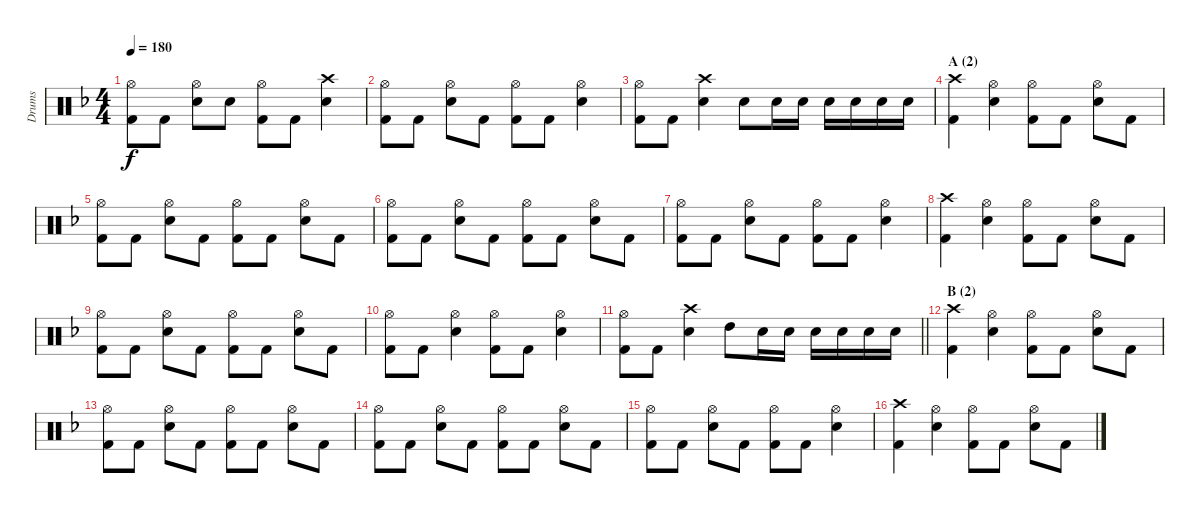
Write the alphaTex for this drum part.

\track ("Drums" "Drums") {instrument percussion}
\staff {score}
\articulation defaults
\ts (4 4)
\tempo 180
\clef neutral
\ks dminor
("Hi-Hat (open)" "Kick (hit) 2").8{dy f} "Kick (hit) 2".8 ("Hi-Hat (open)" "Snare (hit) 2").8 "Snare (hit) 2".8 ("Hi-Hat (open)" "Kick (hit) 2").8 "Kick (hit) 2".8 ("Crash high (hit)" "Snare (hit) 2").4 |
("Hi-Hat (open)" "Kick (hit) 2").8 "Kick (hit) 2".8 ("Hi-Hat (open)" "Snare (hit) 2").8 "Kick (hit) 2".8 ("Hi-Hat (open)" "Kick (hit) 2").8 "Kick (hit) 2".8 ("Hi-Hat (open)" "Snare (hit) 2").4 |
("Hi-Hat (open)" "Kick (hit) 2").8 "Kick (hit) 2".8 ("Crash high (hit)" "Snare (hit) 2").4 "Snare (hit) 2".8 "Snare (hit) 2".16 "Snare (hit) 2".16 "Snare (hit) 2".16 "Snare (hit) 2".16 "Snare (hit) 2".16 "Snare (hit) 2".16 |
\section ("" "A (2)")
("Crash high (hit)" "Kick (hit) 2").4 ("Hi-Hat (open)" "Snare (hit) 2").4 ("Hi-Hat (open)" "Kick (hit) 2").8 "Kick (hit) 2".8 ("Hi-Hat (open)" "Snare (hit) 2").8 "Kick (hit) 2".8 |
("Hi-Hat (open)" "Kick (hit) 2").8 "Kick (hit) 2".8 ("Hi-Hat (open)" "Snare (hit) 2").8 "Kick (hit) 2".8 ("Hi-Hat (open)" "Kick (hit) 2").8 "Kick (hit) 2".8 ("Hi-Hat (open)" "Snare (hit) 2").8 "Kick (hit) 2".8 |
("Hi-Hat (open)" "Kick (hit) 2").8 "Kick (hit) 2".8 ("Hi-Hat (open)" "Snare (hit) 2").8 "Kick (hit) 2".8 ("Hi-Hat (open)" "Kick (hit) 2").8 "Kick (hit) 2".8 ("Hi-Hat (open)" "Snare (hit) 2").8 "Kick (hit) 2".8 |
("Hi-Hat (open)" "Kick (hit) 2").8 "Kick (hit) 2".8 ("Hi-Hat (open)" "Snare (hit) 2").8 "Kick (hit) 2".8 ("Hi-Hat (open)" "Kick (hit) 2").8 "Kick (hit) 2".8 ("Hi-Hat (open)" "Snare (hit) 2").4 |
("Crash high (hit)" "Kick (hit) 2").4 ("Hi-Hat (open)" "Snare (hit) 2").4 ("Hi-Hat (open)" "Kick (hit) 2").8 "Kick (hit) 2".8 ("Hi-Hat (open)" "Snare (hit) 2").8 "Kick (hit) 2".8 |
("Hi-Hat (open)" "Kick (hit) 2").8 "Kick (hit) 2".8 ("Hi-Hat (open)" "Snare (hit) 2").8 "Kick (hit) 2".8 ("Hi-Hat (open)" "Kick (hit) 2").8 "Kick (hit) 2".8 ("Hi-Hat (open)" "Snare (hit) 2").8 "Kick (hit) 2".8 |
("Hi-Hat (open)" "Kick (hit) 2").8 "Kick (hit) 2".8 ("Hi-Hat (open)" "Snare (hit) 2").4 ("Hi-Hat (open)" "Kick (hit) 2").8 "Kick (hit) 2".8 ("Hi-Hat (open)" "Snare (hit) 2").4 |
\barLineRight lightlight
("Hi-Hat (open)" "Kick (hit) 2").8 "Kick (hit) 2".8 ("Crash high (hit)" "Snare (hit) 2").4 "High Tom (hit)".8 "Snare (hit) 2".16 "Snare (hit) 2".16 "Snare (hit) 2".16 "Snare (hit) 2".16 "Snare (hit) 2".16 "Snare (hit) 2".16 |
\section ("" "B (2)")
("Crash high (hit)" "Kick (hit) 2").4 ("Hi-Hat (open)" "Snare (hit) 2").4 ("Hi-Hat (open)" "Kick (hit) 2").8 "Kick (hit) 2".8 ("Hi-Hat (open)" "Snare (hit) 2").8 "Kick (hit) 2".8 |
("Hi-Hat (open)" "Kick (hit) 2").8 "Kick (hit) 2".8 ("Hi-Hat (open)" "Snare (hit) 2").8 "Kick (hit) 2".8 ("Hi-Hat (open)" "Kick (hit) 2").8 "Kick (hit) 2".8 ("Hi-Hat (open)" "Snare (hit) 2").8 "Kick (hit) 2".8 |
("Hi-Hat (open)" "Kick (hit) 2").8 "Kick (hit) 2".8 ("Hi-Hat (open)" "Snare (hit) 2").8 "Kick (hit) 2".8 ("Hi-Hat (open)" "Kick (hit) 2").8 "Kick (hit) 2".8 ("Hi-Hat (open)" "Snare (hit) 2").8 "Kick (hit) 2".8 |
("Hi-Hat (open)" "Kick (hit) 2").8 "Kick (hit) 2".8 ("Hi-Hat (open)" "Snare (hit) 2").8 "Kick (hit) 2".8 ("Hi-Hat (open)" "Kick (hit) 2").8 "Kick (hit) 2".8 ("Hi-Hat (open)" "Snare (hit) 2").4 |
("Crash high (hit)" "Kick (hit) 2").4 ("Hi-Hat (open)" "Snare (hit) 2").4 ("Hi-Hat (open)" "Kick (hit) 2").8 "Kick (hit) 2".8 ("Hi-Hat (open)" "Snare (hit) 2").8 "Kick (hit) 2".8
